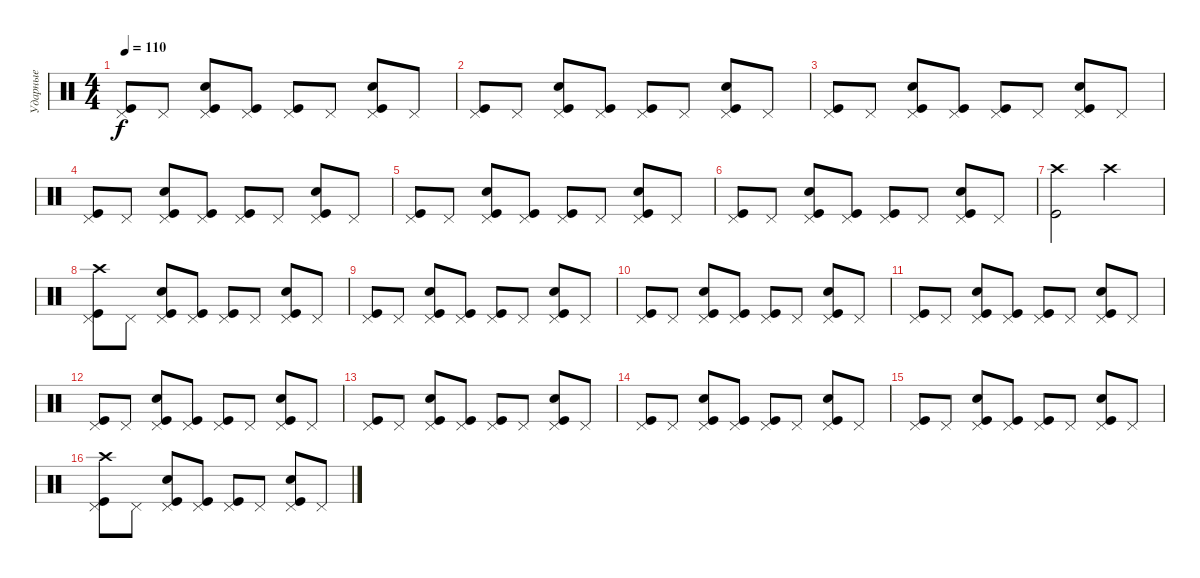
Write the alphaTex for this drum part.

\track ("Ударные" "Ударные") {instrument percussion}
\staff {score}
\articulation defaults
\ts (4 4)
\tempo 110
\clef neutral
\ks c
("Pedal Hi-Hat (hit)" "Kick (hit)").8{dy f} "Pedal Hi-Hat (hit)".8 ("Pedal Hi-Hat (hit)" "Kick (hit)" "Snare (hit) 2").8 ("Pedal Hi-Hat (hit)" "Kick (hit)").8 ("Pedal Hi-Hat (hit)" "Kick (hit)").8 "Pedal Hi-Hat (hit)".8 ("Pedal Hi-Hat (hit)" "Kick (hit)" "Snare (hit) 2").8 "Pedal Hi-Hat (hit)".8 |
("Pedal Hi-Hat (hit)" "Kick (hit)").8 "Pedal Hi-Hat (hit)".8 ("Pedal Hi-Hat (hit)" "Kick (hit)" "Snare (hit) 2").8 ("Pedal Hi-Hat (hit)" "Kick (hit)").8 ("Pedal Hi-Hat (hit)" "Kick (hit)").8 "Pedal Hi-Hat (hit)".8 ("Pedal Hi-Hat (hit)" "Kick (hit)" "Snare (hit) 2").8 "Pedal Hi-Hat (hit)".8 |
("Pedal Hi-Hat (hit)" "Kick (hit)").8 "Pedal Hi-Hat (hit)".8 ("Pedal Hi-Hat (hit)" "Kick (hit)" "Snare (hit) 2").8 ("Pedal Hi-Hat (hit)" "Kick (hit)").8 ("Pedal Hi-Hat (hit)" "Kick (hit)").8 "Pedal Hi-Hat (hit)".8 ("Pedal Hi-Hat (hit)" "Kick (hit)" "Snare (hit) 2").8 "Pedal Hi-Hat (hit)".8 |
("Pedal Hi-Hat (hit)" "Kick (hit)").8 "Pedal Hi-Hat (hit)".8 ("Pedal Hi-Hat (hit)" "Kick (hit)" "Snare (hit) 2").8 ("Pedal Hi-Hat (hit)" "Kick (hit)").8 ("Pedal Hi-Hat (hit)" "Kick (hit)").8 "Pedal Hi-Hat (hit)".8 ("Pedal Hi-Hat (hit)" "Kick (hit)" "Snare (hit) 2").8 "Pedal Hi-Hat (hit)".8 |
("Pedal Hi-Hat (hit)" "Kick (hit)").8 "Pedal Hi-Hat (hit)".8 ("Pedal Hi-Hat (hit)" "Kick (hit)" "Snare (hit) 2").8 ("Pedal Hi-Hat (hit)" "Kick (hit)").8 ("Pedal Hi-Hat (hit)" "Kick (hit)").8 "Pedal Hi-Hat (hit)".8 ("Pedal Hi-Hat (hit)" "Kick (hit)" "Snare (hit) 2").8 "Pedal Hi-Hat (hit)".8 |
("Pedal Hi-Hat (hit)" "Kick (hit)").8 "Pedal Hi-Hat (hit)".8 ("Pedal Hi-Hat (hit)" "Kick (hit)" "Snare (hit) 2").8 ("Pedal Hi-Hat (hit)" "Kick (hit)").8 ("Pedal Hi-Hat (hit)" "Kick (hit)").8 "Pedal Hi-Hat (hit)".8 ("Pedal Hi-Hat (hit)" "Kick (hit)" "Snare (hit) 2").8 "Pedal Hi-Hat (hit)".8 |
("Kick (hit)" "Crash high (hit)").2 "Crash high (hit)".2 |
("Pedal Hi-Hat (hit)" "Kick (hit)" "Crash high (hit)").8 "Pedal Hi-Hat (hit)".8 ("Pedal Hi-Hat (hit)" "Kick (hit)" "Snare (hit) 2").8 ("Pedal Hi-Hat (hit)" "Kick (hit)").8 ("Pedal Hi-Hat (hit)" "Kick (hit)").8 "Pedal Hi-Hat (hit)".8 ("Pedal Hi-Hat (hit)" "Kick (hit)" "Snare (hit) 2").8 "Pedal Hi-Hat (hit)".8 |
("Pedal Hi-Hat (hit)" "Kick (hit)").8 "Pedal Hi-Hat (hit)".8 ("Pedal Hi-Hat (hit)" "Kick (hit)" "Snare (hit) 2").8 ("Pedal Hi-Hat (hit)" "Kick (hit)").8 ("Pedal Hi-Hat (hit)" "Kick (hit)").8 "Pedal Hi-Hat (hit)".8 ("Pedal Hi-Hat (hit)" "Kick (hit)" "Snare (hit) 2").8 "Pedal Hi-Hat (hit)".8 |
("Pedal Hi-Hat (hit)" "Kick (hit)").8 "Pedal Hi-Hat (hit)".8 ("Pedal Hi-Hat (hit)" "Kick (hit)" "Snare (hit) 2").8 ("Pedal Hi-Hat (hit)" "Kick (hit)").8 ("Pedal Hi-Hat (hit)" "Kick (hit)").8 "Pedal Hi-Hat (hit)".8 ("Pedal Hi-Hat (hit)" "Kick (hit)" "Snare (hit) 2").8 "Pedal Hi-Hat (hit)".8 |
("Pedal Hi-Hat (hit)" "Kick (hit)").8 "Pedal Hi-Hat (hit)".8 ("Pedal Hi-Hat (hit)" "Kick (hit)" "Snare (hit) 2").8 ("Pedal Hi-Hat (hit)" "Kick (hit)").8 ("Pedal Hi-Hat (hit)" "Kick (hit)").8 "Pedal Hi-Hat (hit)".8 ("Pedal Hi-Hat (hit)" "Kick (hit)" "Snare (hit) 2").8 "Pedal Hi-Hat (hit)".8 |
("Pedal Hi-Hat (hit)" "Kick (hit)").8 "Pedal Hi-Hat (hit)".8 ("Pedal Hi-Hat (hit)" "Kick (hit)" "Snare (hit) 2").8 ("Pedal Hi-Hat (hit)" "Kick (hit)").8 ("Pedal Hi-Hat (hit)" "Kick (hit)").8 "Pedal Hi-Hat (hit)".8 ("Pedal Hi-Hat (hit)" "Kick (hit)" "Snare (hit) 2").8 "Pedal Hi-Hat (hit)".8 |
("Pedal Hi-Hat (hit)" "Kick (hit)").8 "Pedal Hi-Hat (hit)".8 ("Pedal Hi-Hat (hit)" "Kick (hit)" "Snare (hit) 2").8 ("Pedal Hi-Hat (hit)" "Kick (hit)").8 ("Pedal Hi-Hat (hit)" "Kick (hit)").8 "Pedal Hi-Hat (hit)".8 ("Pedal Hi-Hat (hit)" "Kick (hit)" "Snare (hit) 2").8 "Pedal Hi-Hat (hit)".8 |
("Pedal Hi-Hat (hit)" "Kick (hit)").8 "Pedal Hi-Hat (hit)".8 ("Pedal Hi-Hat (hit)" "Kick (hit)" "Snare (hit) 2").8 ("Pedal Hi-Hat (hit)" "Kick (hit)").8 ("Pedal Hi-Hat (hit)" "Kick (hit)").8 "Pedal Hi-Hat (hit)".8 ("Pedal Hi-Hat (hit)" "Kick (hit)" "Snare (hit) 2").8 "Pedal Hi-Hat (hit)".8 |
("Pedal Hi-Hat (hit)" "Kick (hit)").8 "Pedal Hi-Hat (hit)".8 ("Pedal Hi-Hat (hit)" "Kick (hit)" "Snare (hit) 2").8 ("Pedal Hi-Hat (hit)" "Kick (hit)").8 ("Pedal Hi-Hat (hit)" "Kick (hit)").8 "Pedal Hi-Hat (hit)".8 ("Pedal Hi-Hat (hit)" "Kick (hit)" "Snare (hit) 2").8 "Pedal Hi-Hat (hit)".8 |
("Pedal Hi-Hat (hit)" "Kick (hit)" "Crash high (hit)").8 "Pedal Hi-Hat (hit)".8 ("Pedal Hi-Hat (hit)" "Kick (hit)" "Snare (hit) 2").8 ("Pedal Hi-Hat (hit)" "Kick (hit)").8 ("Pedal Hi-Hat (hit)" "Kick (hit)").8 "Pedal Hi-Hat (hit)".8 ("Pedal Hi-Hat (hit)" "Kick (hit)" "Snare (hit) 2").8 "Pedal Hi-Hat (hit)".8
